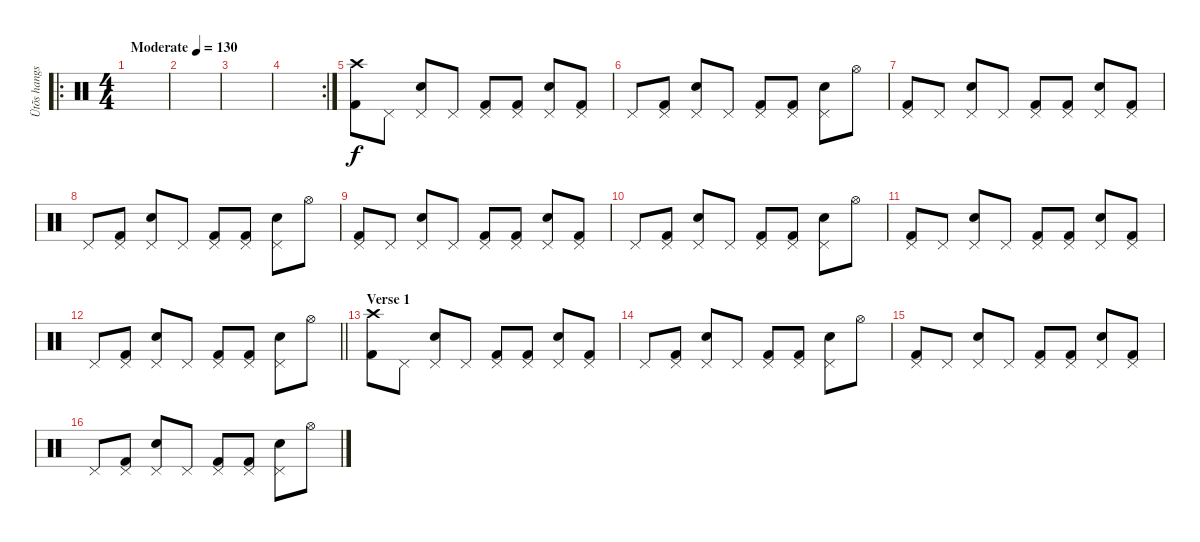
\track ("Ütõs hangszer" "Ütõs hangs") {instrument percussion}
\staff {score}
\articulation defaults
\ro
\ts (4 4)
\tempo (130 "Moderate")
\clef neutral
\ks c
|
|
|
\rc 2
|
("Crash high (hit)" "Kick (hit) 2").8 "Pedal Hi-Hat (hit)".8 ("Pedal Hi-Hat (hit)" "Snare (hit) 2").8 "Pedal Hi-Hat (hit)".8 ("Pedal Hi-Hat (hit)" "Kick (hit) 2").8 ("Pedal Hi-Hat (hit)" "Kick (hit) 2").8 ("Pedal Hi-Hat (hit)" "Snare (hit) 2").8 ("Pedal Hi-Hat (hit)" "Kick (hit) 2").8 |
"Pedal Hi-Hat (hit)".8 ("Pedal Hi-Hat (hit)" "Kick (hit) 2").8 ("Pedal Hi-Hat (hit)" "Snare (hit) 2").8 "Pedal Hi-Hat (hit)".8 ("Pedal Hi-Hat (hit)" "Kick (hit) 2").8 ("Pedal Hi-Hat (hit)" "Kick (hit) 2").8 ("Pedal Hi-Hat (hit)" "Snare (hit) 2").8 "Hi-Hat (open)".8 |
("Pedal Hi-Hat (hit)" "Kick (hit) 2").8 "Pedal Hi-Hat (hit)".8 ("Pedal Hi-Hat (hit)" "Snare (hit) 2").8 "Pedal Hi-Hat (hit)".8 ("Pedal Hi-Hat (hit)" "Kick (hit) 2").8 ("Pedal Hi-Hat (hit)" "Kick (hit) 2").8 ("Pedal Hi-Hat (hit)" "Snare (hit) 2").8 ("Pedal Hi-Hat (hit)" "Kick (hit) 2").8 |
"Pedal Hi-Hat (hit)".8 ("Pedal Hi-Hat (hit)" "Kick (hit) 2").8 ("Pedal Hi-Hat (hit)" "Snare (hit) 2").8 "Pedal Hi-Hat (hit)".8 ("Pedal Hi-Hat (hit)" "Kick (hit) 2").8 ("Pedal Hi-Hat (hit)" "Kick (hit) 2").8 ("Pedal Hi-Hat (hit)" "Snare (hit) 2").8 "Hi-Hat (open)".8 |
("Pedal Hi-Hat (hit)" "Kick (hit) 2").8 "Pedal Hi-Hat (hit)".8 ("Pedal Hi-Hat (hit)" "Snare (hit) 2").8 "Pedal Hi-Hat (hit)".8 ("Pedal Hi-Hat (hit)" "Kick (hit) 2").8 ("Pedal Hi-Hat (hit)" "Kick (hit) 2").8 ("Pedal Hi-Hat (hit)" "Snare (hit) 2").8 ("Pedal Hi-Hat (hit)" "Kick (hit) 2").8 |
"Pedal Hi-Hat (hit)".8 ("Pedal Hi-Hat (hit)" "Kick (hit) 2").8 ("Pedal Hi-Hat (hit)" "Snare (hit) 2").8 "Pedal Hi-Hat (hit)".8 ("Pedal Hi-Hat (hit)" "Kick (hit) 2").8 ("Pedal Hi-Hat (hit)" "Kick (hit) 2").8 ("Pedal Hi-Hat (hit)" "Snare (hit) 2").8 "Hi-Hat (open)".8 |
("Pedal Hi-Hat (hit)" "Kick (hit) 2").8 "Pedal Hi-Hat (hit)".8 ("Pedal Hi-Hat (hit)" "Snare (hit) 2").8 "Pedal Hi-Hat (hit)".8 ("Pedal Hi-Hat (hit)" "Kick (hit) 2").8 ("Pedal Hi-Hat (hit)" "Kick (hit) 2").8 ("Pedal Hi-Hat (hit)" "Snare (hit) 2").8 ("Pedal Hi-Hat (hit)" "Kick (hit) 2").8 |
\barLineRight lightlight "Pedal Hi-Hat (hit)".8
("Pedal Hi-Hat (hit)" "Kick (hit) 2").8 ("Pedal Hi-Hat (hit)" "Snare (hit) 2").8 "Pedal Hi-Hat (hit)".8 ("Pedal Hi-Hat (hit)" "Kick (hit) 2").8 ("Pedal Hi-Hat (hit)" "Kick (hit) 2").8 ("Pedal Hi-Hat (hit)" "Snare (hit) 2").8 "Hi-Hat (open)".8 |
\section ("" "Verse 1")
("Crash high (hit)" "Kick (hit) 2").8 "Pedal Hi-Hat (hit)".8 ("Pedal Hi-Hat (hit)" "Snare (hit) 2").8 "Pedal Hi-Hat (hit)".8 ("Pedal Hi-Hat (hit)" "Kick (hit) 2").8 ("Pedal Hi-Hat (hit)" "Kick (hit) 2").8 ("Pedal Hi-Hat (hit)" "Snare (hit) 2").8 ("Pedal Hi-Hat (hit)" "Kick (hit) 2").8 |
"Pedal Hi-Hat (hit)".8 ("Pedal Hi-Hat (hit)" "Kick (hit) 2").8 ("Pedal Hi-Hat (hit)" "Snare (hit) 2").8 "Pedal Hi-Hat (hit)".8 ("Pedal Hi-Hat (hit)" "Kick (hit) 2").8 ("Pedal Hi-Hat (hit)" "Kick (hit) 2").8 ("Pedal Hi-Hat (hit)" "Snare (hit) 2").8 "Hi-Hat (open)".8 |
("Pedal Hi-Hat (hit)" "Kick (hit) 2").8 "Pedal Hi-Hat (hit)".8 ("Pedal Hi-Hat (hit)" "Snare (hit) 2").8 "Pedal Hi-Hat (hit)".8 ("Pedal Hi-Hat (hit)" "Kick (hit) 2").8 ("Pedal Hi-Hat (hit)" "Kick (hit) 2").8 ("Pedal Hi-Hat (hit)" "Snare (hit) 2").8 ("Pedal Hi-Hat (hit)" "Kick (hit) 2").8 |
"Pedal Hi-Hat (hit)".8 ("Pedal Hi-Hat (hit)" "Kick (hit) 2").8 ("Pedal Hi-Hat (hit)" "Snare (hit) 2").8 "Pedal Hi-Hat (hit)".8 ("Pedal Hi-Hat (hit)" "Kick (hit) 2").8 ("Pedal Hi-Hat (hit)" "Kick (hit) 2").8 ("Pedal Hi-Hat (hit)" "Snare (hit) 2").8 "Hi-Hat (open)".8
